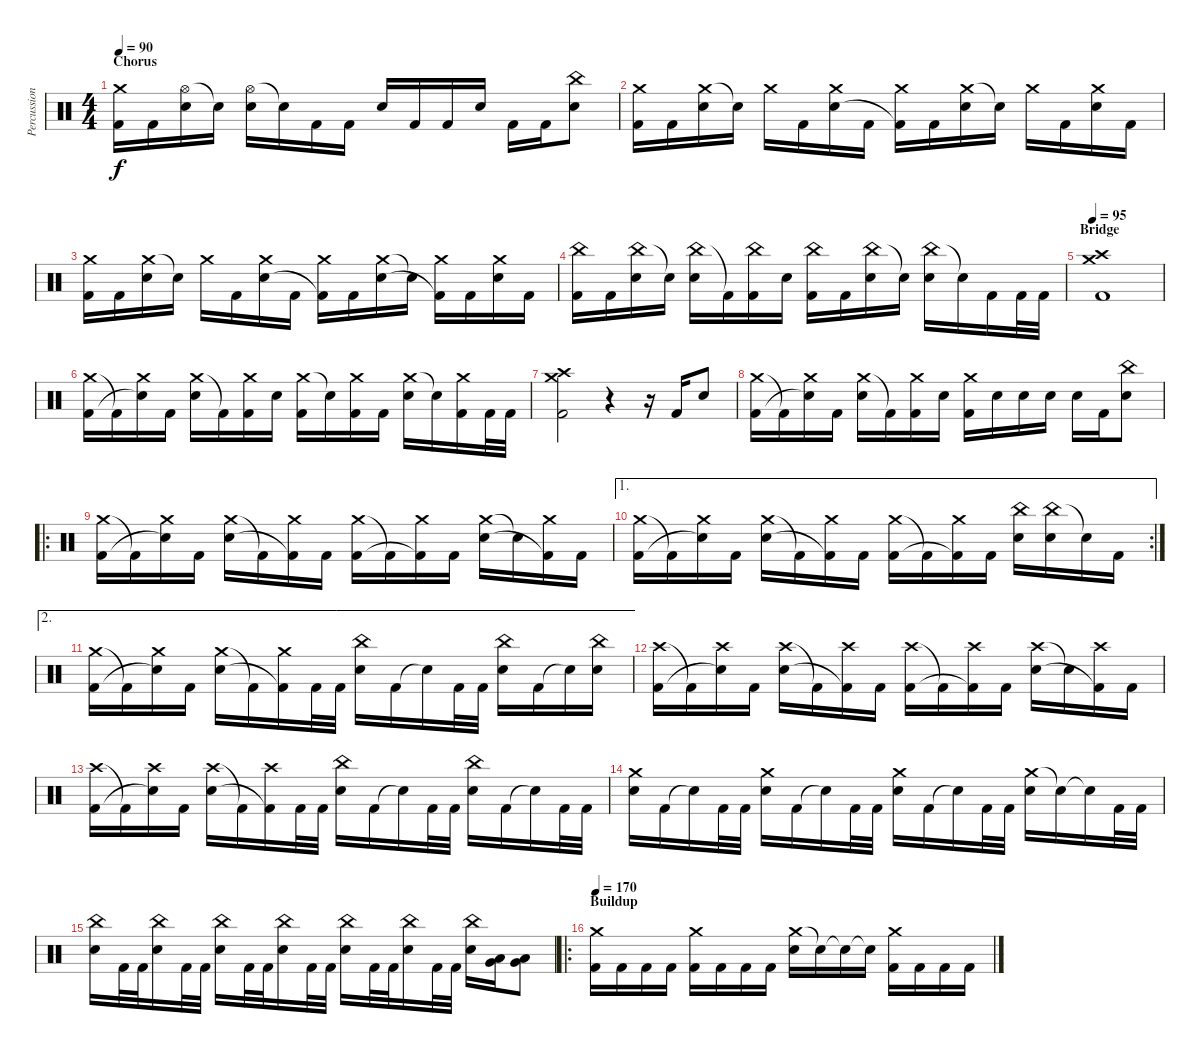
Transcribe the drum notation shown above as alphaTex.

\track ("Percussion" "Percussion") {instrument percussion}
\staff {score}
\articulation defaults
\ts (4 4)
\section ("" "Chorus")
\tempo 90
\clef neutral
\ks c
("Crash medium (hit)" "Kick (hit) 2").16{dy f} "Kick (hit) 2".16 ("Hi-Hat (open)" "Electric Snare (hit)").16 "Snare (hit)"{t}.16 ("Hi-Hat (open)" "Electric Snare (hit)").16 "Snare (hit)"{t}.16 "Kick (hit) 2".16 "Kick (hit) 2".16 "Electric Snare (hit)".16 "Kick (hit) 2".16 "Kick (hit) 2".16 "Electric Snare (hit)".16 "Kick (hit) 2".16 "Kick (hit) 2".16 ("China (hit)" "Electric Snare (hit)").8 |
("Crash medium (hit)" "Kick (hit) 2").16 "Kick (hit) 2".16 ("Crash medium (hit)" "Electric Snare (hit)").16 "Snare (hit)"{t}.16 "Crash medium (hit)".16 "Kick (hit) 2".16 ("Crash medium (hit)" "Electric Snare (hit)").16 "Kick (hit) 2".16 ("Crash medium (hit)" "Kick (hit) 2"{t}).16 "Kick (hit) 2".16 ("Crash medium (hit)" "Electric Snare (hit)").16 "Snare (hit)"{t}.16 "Crash medium (hit)".16 "Kick (hit) 2".16 ("Crash medium (hit)" "Electric Snare (hit)").16 "Kick (hit) 2".16 |
("Crash medium (hit)" "Kick (hit) 2").16 "Kick (hit) 2".16 ("Crash medium (hit)" "Electric Snare (hit)").16 "Snare (hit)"{t}.16 "Crash medium (hit)".16 "Kick (hit) 2".16 ("Crash medium (hit)" "Electric Snare (hit)").16 "Kick (hit) 2".16 ("Crash medium (hit)" "Kick (hit) 2"{t}).16 "Kick (hit) 2".16 ("Crash medium (hit)" "Electric Snare (hit)").16 "Snare (hit)"{t}.16 ("Crash medium (hit)" "Kick (hit) 2"{t}).16 "Kick (hit) 2".16 ("Crash medium (hit)" "Electric Snare (hit)").16 "Kick (hit) 2".16 |
("China (hit)" "Kick (hit) 2").16 "Kick (hit) 2".16 ("China (hit)" "Electric Snare (hit)").16 "Snare (hit)"{t}.16 ("China (hit)" "Electric Snare (hit)").16 "Kick (hit) 2"{t}.16 ("China (hit)" "Kick (hit) 2").16 "Electric Snare (hit)".16 ("China (hit)" "Kick (hit) 2").16 "Kick (hit) 2".16 ("China (hit)" "Electric Snare (hit)").16 "Snare (hit)"{t}.16 ("China (hit)" "Electric Snare (hit)").16 "Snare (hit)"{t}.16 "Kick (hit) 2".16 "Kick (hit) 2".32 "Kick (hit) 2".32 |
\section ("" "Bridge")
\tempo 95
("Crash medium (hit)" "Crash high (hit)" "Kick (hit) 2").1 |
("Crash medium (hit)" "Kick (hit) 2").16 "Kick (hit) 2"{t}.16 ("Crash medium (hit)" "Snare (hit)"{t}).16 "Kick (hit) 2".16 ("Crash medium (hit)" "Electric Snare (hit)").16 "Kick (hit) 2"{t}.16 ("Crash medium (hit)" "Kick (hit) 2").16 "Electric Snare (hit)".16 ("Crash medium (hit)" "Kick (hit) 2").16 "Snare (hit)"{t}.16 ("Crash medium (hit)" "Kick (hit) 2").16 "Kick (hit) 2".16 ("Crash medium (hit)" "Electric Snare (hit)").16 "Snare (hit)"{t}.16 ("Crash medium (hit)" "Kick (hit) 2").16 "Kick (hit) 2".32 "Kick (hit) 2".32 |
("Crash medium (hit)" "Crash high (hit)" "Kick (hit) 2").2 r.4 r.16 "Kick (hit) 2".16 "Electric Snare (hit)".8 |
("Crash medium (hit)" "Kick (hit) 2").16 "Kick (hit) 2"{t}.16 ("Crash medium (hit)" "Snare (hit)"{t}).16 "Kick (hit) 2".16 ("Crash medium (hit)" "Electric Snare (hit)").16 "Kick (hit) 2"{t}.16 ("Crash medium (hit)" "Kick (hit) 2").16 "Electric Snare (hit)".16 ("Crash medium (hit)" "Kick (hit) 2").16 "Electric Snare (hit)".16 "Electric Snare (hit)".16 "Electric Snare (hit)".16 "Electric Snare (hit)".16 "Kick (hit) 2".16 ("China (hit)" "Electric Snare (hit)").8 |
\ro
("Crash medium (hit)" "Kick (hit) 2").16 "Kick (hit) 2"{t}.16 ("Crash medium (hit)" "Snare (hit)"{t}).16 "Kick (hit) 2".16 ("Crash medium (hit)" "Electric Snare (hit)").16 "Kick (hit) 2"{t}.16 ("Crash medium (hit)" "Kick (hit) 2"{t}).16 "Kick (hit) 2".16 ("Crash medium (hit)" "Kick (hit) 2").16 "Kick (hit) 2"{t}.16 ("Crash medium (hit)" "Kick (hit) 2"{t}).16 "Kick (hit) 2".16 ("Crash medium (hit)" "Electric Snare (hit)").16 "Snare (hit)"{t}.16 ("Crash medium (hit)" "Kick (hit) 2"{t}).16 "Kick (hit) 2".16 |
\ae 1
\rc 2
("Crash medium (hit)" "Kick (hit) 2").16 "Kick (hit) 2"{t}.16 ("Crash medium (hit)" "Snare (hit)"{t}).16 "Kick (hit) 2".16 ("Crash medium (hit)" "Electric Snare (hit)").16 "Kick (hit) 2"{t}.16 ("Crash medium (hit)" "Kick (hit) 2"{t}).16 "Kick (hit) 2".16 ("Crash medium (hit)" "Kick (hit) 2").16 "Kick (hit) 2"{t}.16 ("Crash medium (hit)" "Kick (hit) 2"{t}).16 "Kick (hit) 2".16 ("China (hit)" "Electric Snare (hit)").16 ("China (hit)" "Electric Snare (hit)").16 "Electric Snare (hit)"{t}.16 "Kick (hit) 2".16 |
\ae 2
("Crash medium (hit)" "Kick (hit) 2").16 "Kick (hit) 2"{t}.16 ("Crash medium (hit)" "Snare (hit)"{t}).16 "Kick (hit) 2".16 ("Crash medium (hit)" "Electric Snare (hit)").16 "Kick (hit) 2"{t}.16 ("Crash medium (hit)" "Kick (hit) 2"{t}).16 "Kick (hit) 2".32 "Kick (hit) 2".32 ("China (hit)" "Electric Snare (hit)").16 "Kick (hit) 2".16 "Snare (hit)"{t}.16 "Kick (hit) 2".32 "Kick (hit) 2".32 ("China (hit)" "Electric Snare (hit)").16 "Kick (hit) 2".16 "Snare (hit)"{t}.16 ("China (hit)" "Electric Snare (hit)").16 |
("Crash high (hit)" "Kick (hit) 2").16 "Kick (hit) 2"{t}.16 ("Crash high (hit)" "Snare (hit)"{t}).16 "Kick (hit) 2".16 ("Crash high (hit)" "Electric Snare (hit)").16 "Kick (hit) 2"{t}.16 ("Crash high (hit)" "Kick (hit) 2"{t}).16 "Kick (hit) 2".16 ("Crash high (hit)" "Kick (hit) 2").16 "Kick (hit) 2"{t}.16 ("Crash high (hit)" "Kick (hit) 2"{t}).16 "Kick (hit) 2".16 ("Crash high (hit)" "Electric Snare (hit)").16 "Snare (hit)"{t}.16 ("Crash high (hit)" "Kick (hit) 2"{t}).16 "Kick (hit) 2".16 |
("Crash high (hit)" "Kick (hit) 2").16 "Kick (hit) 2"{t}.16 ("Crash high (hit)" "Snare (hit)"{t}).16 "Kick (hit) 2".16 ("Crash high (hit)" "Electric Snare (hit)").16 "Kick (hit) 2"{t}.16 ("Crash high (hit)" "Kick (hit) 2"{t}).16 "Kick (hit) 2".32 "Kick (hit) 2".32 ("China (hit)" "Electric Snare (hit)").16 "Kick (hit) 2".16 "Snare (hit)"{t}.16 "Kick (hit) 2".32 "Kick (hit) 2".32 ("China (hit)" "Electric Snare (hit)").16 "Kick (hit) 2".16 "Snare (hit)"{t}.16 "Kick (hit) 2".32 "Kick (hit) 2".32 |
("Crash medium (hit)" "Electric Snare (hit)").16 "Kick (hit) 2".16 "Snare (hit)"{t}.16 "Kick (hit) 2".32 "Kick (hit) 2".32 ("Crash medium (hit)" "Electric Snare (hit)").16 "Kick (hit) 2".16 "Snare (hit)"{t}.16 "Kick (hit) 2".32 "Kick (hit) 2".32 ("Crash medium (hit)" "Electric Snare (hit)").16 "Kick (hit) 2".16 "Snare (hit)"{t}.16 "Kick (hit) 2".32 "Kick (hit) 2".32 ("Crash medium (hit)" "Electric Snare (hit)").16 "Snare (hit)"{t}.16 "Snare (hit)"{t}.16 "Kick (hit) 2".32 "Kick (hit) 2".32 |
("China (hit)" "Electric Snare (hit)").16 "Kick (hit) 2".32 "Kick (hit) 2".32 ("China (hit)" "Electric Snare (hit)").16 "Kick (hit) 2".32 "Kick (hit) 2".32 ("China (hit)" "Electric Snare (hit)").16 "Kick (hit) 2".32 "Kick (hit) 2".32 ("China (hit)" "Electric Snare (hit)").16 "Kick (hit) 2".32 "Kick (hit) 2".32 ("China (hit)" "Electric Snare (hit)").16 "Kick (hit) 2".32 "Kick (hit) 2".32 ("China (hit)" "Electric Snare (hit)").16 "Kick (hit) 2".32 "Kick (hit) 2".32 ("China (hit)" "Electric Snare (hit)").16 ("Low Tom (hit)" "Very Low Tom (hit)").16 ("Low Tom (hit)" "Very Low Tom (hit)").8 |
\ro
\section ("" "Buildup")
\tempo 170
("Crash medium (hit)" "Kick (hit) 2").16 "Kick (hit) 2".16 "Kick (hit) 2".16 "Kick (hit) 2".16 ("Crash medium (hit)" "Kick (hit) 2").16 "Kick (hit) 2".16 "Kick (hit) 2".16 "Kick (hit) 2".16 ("Crash medium (hit)" "Electric Snare (hit)").16 "Snare (hit)"{t}.16 "Snare (hit)"{t}.16 "Snare (hit)"{t}.16 ("Crash medium (hit)" "Kick (hit) 2").16 "Kick (hit) 2".16 "Kick (hit) 2".16 "Kick (hit) 2".16
